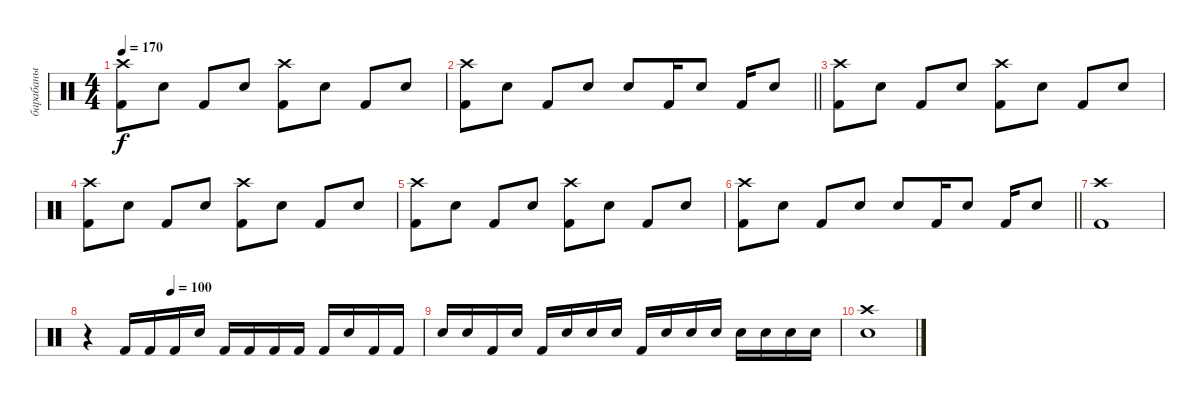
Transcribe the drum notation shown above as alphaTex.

\track ("барабаны" "барабаны") {instrument percussion}
\staff {score}
\articulation defaults
\ts (4 4)
\tempo 170
\clef neutral
\ks c
("Crash high (hit)" "Kick (hit) 2").8{dy f} "Snare (hit) 2".8 "Kick (hit) 2".8 "Snare (hit) 2".8 ("Crash high (hit)" "Kick (hit) 2").8 "Snare (hit) 2".8 "Kick (hit) 2".8 "Snare (hit) 2".8 |
\barLineRight lightlight
("Crash high (hit)" "Kick (hit) 2").8 "Snare (hit) 2".8 "Kick (hit) 2".8 "Snare (hit) 2".8 "Snare (hit) 2".8 "Kick (hit) 2".16 "Snare (hit) 2".8 "Kick (hit) 2".16 "Snare (hit) 2".8 |
("Crash high (hit)" "Kick (hit) 2").8 "Snare (hit) 2".8 "Kick (hit) 2".8 "Snare (hit) 2".8 ("Crash high (hit)" "Kick (hit) 2").8 "Snare (hit) 2".8 "Kick (hit) 2".8 "Snare (hit) 2".8 |
("Crash high (hit)" "Kick (hit) 2").8 "Snare (hit) 2".8 "Kick (hit) 2".8 "Snare (hit) 2".8 ("Crash high (hit)" "Kick (hit) 2").8 "Snare (hit) 2".8 "Kick (hit) 2".8 "Snare (hit) 2".8 |
("Crash high (hit)" "Kick (hit) 2").8 "Snare (hit) 2".8 "Kick (hit) 2".8 "Snare (hit) 2".8 ("Crash high (hit)" "Kick (hit) 2").8 "Snare (hit) 2".8 "Kick (hit) 2".8 "Snare (hit) 2".8 |
\barLineRight lightlight
("Crash high (hit)" "Kick (hit) 2").8 "Snare (hit) 2".8 "Kick (hit) 2".8 "Snare (hit) 2".8 "Snare (hit) 2".8 "Kick (hit) 2".16 "Snare (hit) 2".8 "Kick (hit) 2".16 "Snare (hit) 2".8 |
("Crash high (hit)" "Kick (hit) 2").1 |
\tempo (100 0.25)
r.4 "Kick (hit) 2".16 "Kick (hit) 2".16 "Kick (hit) 2".16 "Snare (hit) 2".16 "Kick (hit) 2".16 "Kick (hit) 2".16 "Kick (hit) 2".16 "Kick (hit) 2".16 "Kick (hit) 2".16 "Snare (hit) 2".16 "Kick (hit) 2".16 "Kick (hit) 2".16 |
"Snare (hit) 2".16 "Snare (hit) 2".16 "Kick (hit) 2".16 "Snare (hit) 2".16 "Kick (hit) 2".16 "Snare (hit) 2".16 "Snare (hit) 2".16 "Snare (hit) 2".16 "Kick (hit) 2".16 "Snare (hit) 2".16 "Snare (hit) 2".16 "Snare (hit) 2".16 "Snare (hit) 2".16 "Snare (hit) 2".16 "Snare (hit) 2".16 "Snare (hit) 2".16 |
("Crash high (hit)" "Snare (hit) 2").1
